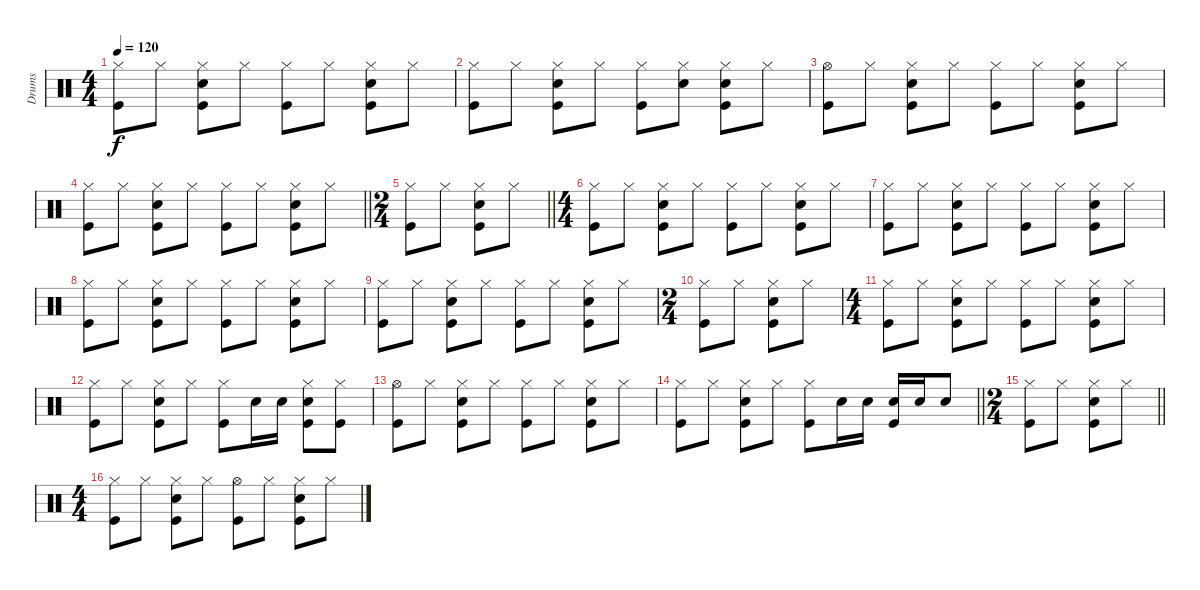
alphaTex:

\track ("Drums" "Drums") {instrument percussion}
\staff {score}
\articulation defaults
\ts (4 4)
\tempo 120
\clef neutral
\ks c
("Hi-Hat (closed)" "Kick (hit)").8{dy f} "Hi-Hat (closed)".8 ("Hi-Hat (closed)" "Snare (hit) 2" "Kick (hit)").8 "Hi-Hat (closed)".8 ("Hi-Hat (closed)" "Kick (hit)").8 "Hi-Hat (closed)".8 ("Hi-Hat (closed)" "Snare (hit) 2" "Kick (hit)").8 "Hi-Hat (closed)".8 |
("Hi-Hat (closed)" "Kick (hit)").8 "Hi-Hat (closed)".8 ("Hi-Hat (closed)" "Snare (hit) 2" "Kick (hit)").8 "Hi-Hat (closed)".8 ("Hi-Hat (closed)" "Kick (hit)").8 ("Hi-Hat (closed)" "Snare (hit) 2").8 ("Hi-Hat (closed)" "Snare (hit) 2" "Kick (hit)").8 "Hi-Hat (closed)".8 |
("Hi-Hat (open)" "Kick (hit)").8 "Hi-Hat (closed)".8 ("Hi-Hat (closed)" "Snare (hit) 2" "Kick (hit)").8 "Hi-Hat (closed)".8 ("Hi-Hat (closed)" "Kick (hit)").8 "Hi-Hat (closed)".8 ("Hi-Hat (closed)" "Snare (hit) 2" "Kick (hit)").8 "Hi-Hat (closed)".8 |
\barLineRight lightlight
("Hi-Hat (closed)" "Kick (hit)").8 "Hi-Hat (closed)".8 ("Hi-Hat (closed)" "Snare (hit) 2" "Kick (hit)").8 "Hi-Hat (closed)".8 ("Hi-Hat (closed)" "Kick (hit)").8 "Hi-Hat (closed)".8 ("Hi-Hat (closed)" "Snare (hit) 2" "Kick (hit)").8 "Hi-Hat (closed)".8 |
\ts (2 4)
\barLineRight lightlight
("Hi-Hat (closed)" "Kick (hit)").8 "Hi-Hat (closed)".8 ("Hi-Hat (closed)" "Snare (hit) 2" "Kick (hit)").8 "Hi-Hat (closed)".8 |
\ts (4 4)
("Hi-Hat (closed)" "Kick (hit)").8 "Hi-Hat (closed)".8 ("Hi-Hat (closed)" "Snare (hit) 2" "Kick (hit)").8 "Hi-Hat (closed)".8 ("Hi-Hat (closed)" "Kick (hit)").8 "Hi-Hat (closed)".8 ("Hi-Hat (closed)" "Snare (hit) 2" "Kick (hit)").8 "Hi-Hat (closed)".8 |
("Hi-Hat (closed)" "Kick (hit)").8 "Hi-Hat (closed)".8 ("Hi-Hat (closed)" "Snare (hit) 2" "Kick (hit)").8 "Hi-Hat (closed)".8 ("Hi-Hat (closed)" "Kick (hit)").8 "Hi-Hat (closed)".8 ("Hi-Hat (closed)" "Snare (hit) 2" "Kick (hit)").8 "Hi-Hat (closed)".8 |
("Hi-Hat (closed)" "Kick (hit)").8 "Hi-Hat (closed)".8 ("Hi-Hat (closed)" "Snare (hit) 2" "Kick (hit)").8 "Hi-Hat (closed)".8 ("Hi-Hat (closed)" "Kick (hit)").8 "Hi-Hat (closed)".8 ("Hi-Hat (closed)" "Snare (hit) 2" "Kick (hit)").8 "Hi-Hat (closed)".8 |
("Hi-Hat (closed)" "Kick (hit)").8 "Hi-Hat (closed)".8 ("Hi-Hat (closed)" "Snare (hit) 2" "Kick (hit)").8 "Hi-Hat (closed)".8 ("Hi-Hat (closed)" "Kick (hit)").8 "Hi-Hat (closed)".8 ("Hi-Hat (closed)" "Snare (hit) 2" "Kick (hit)").8 "Hi-Hat (closed)".8 |
\ts (2 4)
("Hi-Hat (closed)" "Kick (hit)").8 "Hi-Hat (closed)".8 ("Hi-Hat (closed)" "Snare (hit) 2" "Kick (hit)").8 "Hi-Hat (closed)".8 |
\ts (4 4)
("Hi-Hat (closed)" "Kick (hit)").8 "Hi-Hat (closed)".8 ("Hi-Hat (closed)" "Snare (hit) 2" "Kick (hit)").8 "Hi-Hat (closed)".8 ("Hi-Hat (closed)" "Kick (hit)").8 "Hi-Hat (closed)".8 ("Hi-Hat (closed)" "Snare (hit) 2" "Kick (hit)").8 "Hi-Hat (closed)".8 |
("Hi-Hat (closed)" "Kick (hit)").8 "Hi-Hat (closed)".8 ("Hi-Hat (closed)" "Snare (hit) 2" "Kick (hit)").8 "Hi-Hat (closed)".8 ("Hi-Hat (closed)" "Kick (hit)").8 "Snare (hit) 2".16 "Snare (hit) 2".16 ("Hi-Hat (closed)" "Snare (hit) 2" "Kick (hit)").8 ("Hi-Hat (closed)" "Kick (hit)").8 |
("Hi-Hat (open)" "Kick (hit)").8 "Hi-Hat (closed)".8 ("Hi-Hat (closed)" "Snare (hit) 2" "Kick (hit)").8 "Hi-Hat (closed)".8 ("Hi-Hat (closed)" "Kick (hit)").8 "Hi-Hat (closed)".8 ("Hi-Hat (closed)" "Snare (hit) 2" "Kick (hit)").8 "Hi-Hat (closed)".8 |
\barLineRight lightlight
("Hi-Hat (closed)" "Kick (hit)").8 "Hi-Hat (closed)".8 ("Hi-Hat (closed)" "Snare (hit) 2" "Kick (hit)").8 "Hi-Hat (closed)".8 ("Hi-Hat (closed)" "Kick (hit)").8 "Snare (hit) 2".16 "Snare (hit) 2".16 ("Snare (hit) 2" "Kick (hit)").16 "Snare (hit) 2".16 "Snare (hit) 2".8 |
\ts (2 4)
\barLineRight lightlight
("Hi-Hat (closed)" "Kick (hit)").8 "Hi-Hat (closed)".8 ("Hi-Hat (closed)" "Snare (hit) 2" "Kick (hit)").8 "Hi-Hat (closed)".8 |
\ts (4 4)
("Hi-Hat (closed)" "Kick (hit)").8 "Hi-Hat (closed)".8 ("Hi-Hat (closed)" "Snare (hit) 2" "Kick (hit)").8 "Hi-Hat (closed)".8 ("Hi-Hat (open)" "Kick (hit)").8 "Hi-Hat (closed)".8 ("Hi-Hat (closed)" "Snare (hit) 2" "Kick (hit)").8 "Hi-Hat (closed)".8
